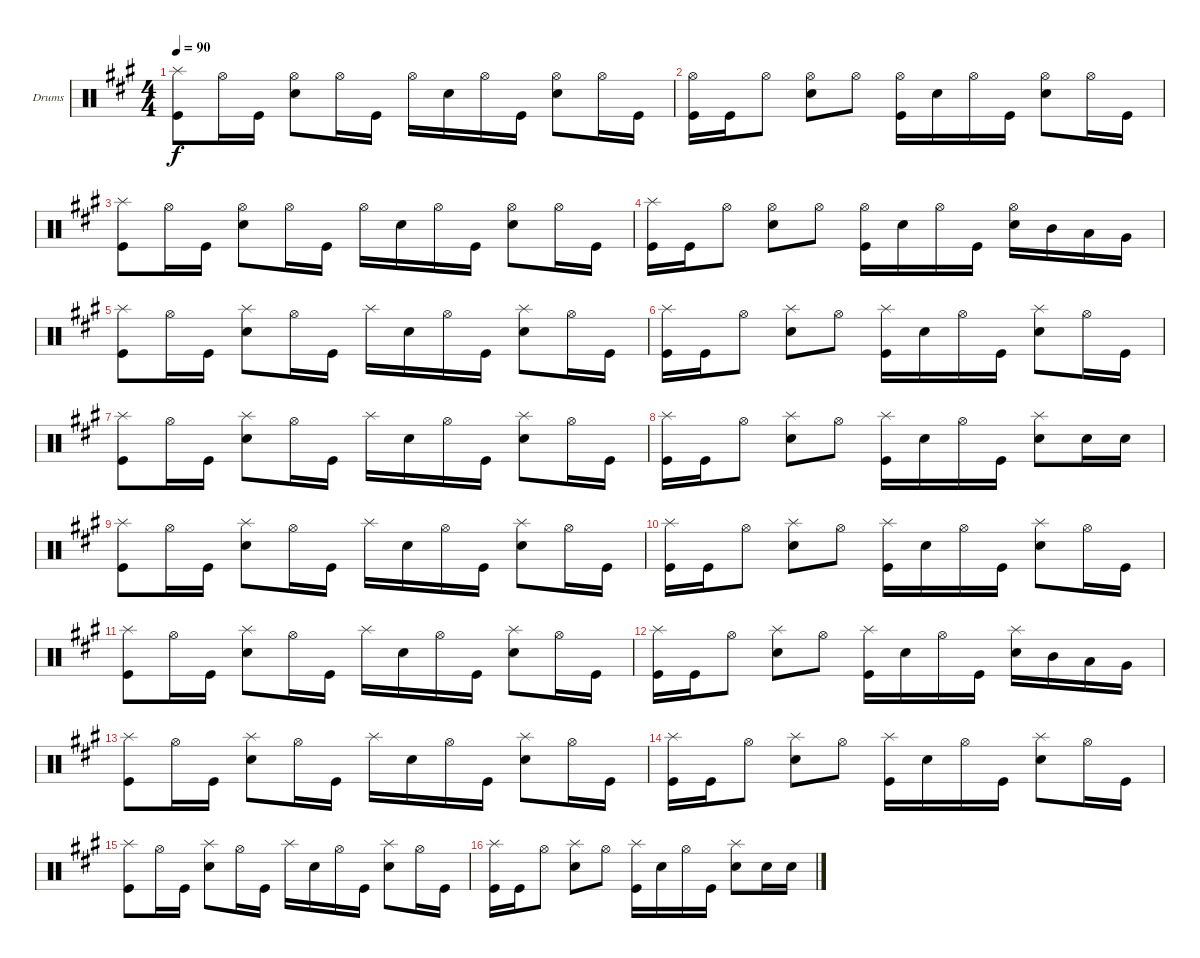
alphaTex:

\bracketExtendMode groupsimilarinstruments
\firstSystemTrackNameOrientation horizontal
\otherSystemsTrackNameOrientation horizontal
\track ("Drumkit" "Drums") {instrument percussion}
\staff {score}
\articulation defaults
\ts (4 4)
\tempo 90
\clef neutral
\ks f#minor
("Kick (hit)" "Splash (hit)").8{dy f} "Hi-Hat (open)".16 "Kick (hit)".16 ("Snare (hit) 2" "Hi-Hat (open)").8 "Hi-Hat (open)".16 "Kick (hit)".16 "Hi-Hat (open)".16 "Snare (hit) 2".16 "Hi-Hat (open)".16 "Kick (hit)".16 ("Snare (hit) 2" "Hi-Hat (open)").8 "Hi-Hat (open)".16 "Kick (hit)".16 |
("Hi-Hat (open)" "Kick (hit)").16 "Kick (hit)".16 "Hi-Hat (open)".8 ("Snare (hit) 2" "Hi-Hat (open)").8 "Hi-Hat (open)".8 ("Kick (hit)" "Hi-Hat (open)").16 "Snare (hit) 2".16 "Hi-Hat (open)".16 "Kick (hit)".16 ("Snare (hit) 2" "Hi-Hat (open)").8 "Hi-Hat (open)".16 "Kick (hit)".16 |
("Kick (hit)" "Splash (hit)").8 "Hi-Hat (open)".16 "Kick (hit)".16 ("Snare (hit) 2" "Hi-Hat (open)").8 "Hi-Hat (open)".16 "Kick (hit)".16 "Hi-Hat (open)".16 "Snare (hit) 2".16 "Hi-Hat (open)".16 "Kick (hit)".16 ("Snare (hit) 2" "Hi-Hat (open)").8 "Hi-Hat (open)".16 "Kick (hit)".16 |
("Kick (hit)" "Splash (hit)").16 "Kick (hit)".16 "Hi-Hat (open)".8 ("Snare (hit) 2" "Hi-Hat (open)").8 "Hi-Hat (open)".8 ("Kick (hit)" "Hi-Hat (open)").16 "Snare (hit) 2".16 "Hi-Hat (open)".16 "Kick (hit)".16 ("Snare (hit) 2" "Hi-Hat (open)").16 "Mid Tom (hit)".16 "Low Tom (hit)".16 "Very Low Tom (hit)".16 |
("Kick (hit)" "Splash (hit)").8 "Hi-Hat (open)".16 "Kick (hit)".16 ("Snare (hit) 2" "Splash (hit)").8 "Hi-Hat (open)".16 "Kick (hit)".16 "Splash (hit)".16 "Snare (hit) 2".16 "Hi-Hat (open)".16 "Kick (hit)".16 ("Snare (hit) 2" "Splash (hit)").8 "Hi-Hat (open)".16 "Kick (hit)".16 |
("Kick (hit)" "Splash (hit)").16 "Kick (hit)".16 "Hi-Hat (open)".8 ("Snare (hit) 2" "Splash (hit)").8 "Hi-Hat (open)".8 ("Kick (hit)" "Splash (hit)").16 "Snare (hit) 2".16 "Hi-Hat (open)".16 "Kick (hit)".16 ("Snare (hit) 2" "Splash (hit)").8 "Hi-Hat (open)".16 "Kick (hit)".16 |
("Kick (hit)" "Splash (hit)").8 "Hi-Hat (open)".16 "Kick (hit)".16 ("Snare (hit) 2" "Splash (hit)").8 "Hi-Hat (open)".16 "Kick (hit)".16 "Splash (hit)".16 "Snare (hit) 2".16 "Hi-Hat (open)".16 "Kick (hit)".16 ("Snare (hit) 2" "Splash (hit)").8 "Hi-Hat (open)".16 "Kick (hit)".16 |
("Kick (hit)" "Splash (hit)").16 "Kick (hit)".16 "Hi-Hat (open)".8 ("Snare (hit) 2" "Splash (hit)").8 "Hi-Hat (open)".8 ("Kick (hit)" "Splash (hit)").16 "Snare (hit) 2".16 "Hi-Hat (open)".16 "Kick (hit)".16 ("Snare (hit) 2" "Splash (hit)").8 "Snare (hit) 2".16 "Snare (hit) 2".16 |
("Kick (hit)" "Splash (hit)").8 "Hi-Hat (open)".16 "Kick (hit)".16 ("Snare (hit) 2" "Splash (hit)").8 "Hi-Hat (open)".16 "Kick (hit)".16 "Splash (hit)".16 "Snare (hit) 2".16 "Hi-Hat (open)".16 "Kick (hit)".16 ("Snare (hit) 2" "Splash (hit)").8 "Hi-Hat (open)".16 "Kick (hit)".16 |
("Kick (hit)" "Splash (hit)").16 "Kick (hit)".16 "Hi-Hat (open)".8 ("Snare (hit) 2" "Splash (hit)").8 "Hi-Hat (open)".8 ("Kick (hit)" "Splash (hit)").16 "Snare (hit) 2".16 "Hi-Hat (open)".16 "Kick (hit)".16 ("Snare (hit) 2" "Splash (hit)").8 "Hi-Hat (open)".16 "Kick (hit)".16 |
("Kick (hit)" "Splash (hit)").8 "Hi-Hat (open)".16 "Kick (hit)".16 ("Snare (hit) 2" "Splash (hit)").8 "Hi-Hat (open)".16 "Kick (hit)".16 "Splash (hit)".16 "Snare (hit) 2".16 "Hi-Hat (open)".16 "Kick (hit)".16 ("Snare (hit) 2" "Splash (hit)").8 "Hi-Hat (open)".16 "Kick (hit)".16 |
("Kick (hit)" "Splash (hit)").16 "Kick (hit)".16 "Hi-Hat (open)".8 ("Snare (hit) 2" "Splash (hit)").8 "Hi-Hat (open)".8 ("Kick (hit)" "Splash (hit)").16 "Snare (hit) 2".16 "Hi-Hat (open)".16 "Kick (hit)".16 ("Snare (hit) 2" "Splash (hit)").16 "Mid Tom (hit)".16 "Low Tom (hit)".16 "Very Low Tom (hit)".16 |
("Kick (hit)" "Splash (hit)").8 "Hi-Hat (open)".16 "Kick (hit)".16 ("Snare (hit) 2" "Splash (hit)").8 "Hi-Hat (open)".16 "Kick (hit)".16 "Splash (hit)".16 "Snare (hit) 2".16 "Hi-Hat (open)".16 "Kick (hit)".16 ("Snare (hit) 2" "Splash (hit)").8 "Hi-Hat (open)".16 "Kick (hit)".16 |
("Kick (hit)" "Splash (hit)").16 "Kick (hit)".16 "Hi-Hat (open)".8 ("Snare (hit) 2" "Splash (hit)").8 "Hi-Hat (open)".8 ("Kick (hit)" "Splash (hit)").16 "Snare (hit) 2".16 "Hi-Hat (open)".16 "Kick (hit)".16 ("Snare (hit) 2" "Splash (hit)").8 "Hi-Hat (open)".16 "Kick (hit)".16 |
("Kick (hit)" "Splash (hit)").8 "Hi-Hat (open)".16 "Kick (hit)".16 ("Snare (hit) 2" "Splash (hit)").8 "Hi-Hat (open)".16 "Kick (hit)".16 "Splash (hit)".16 "Snare (hit) 2".16 "Hi-Hat (open)".16 "Kick (hit)".16 ("Snare (hit) 2" "Splash (hit)").8 "Hi-Hat (open)".16 "Kick (hit)".16 |
("Kick (hit)" "Splash (hit)").16 "Kick (hit)".16 "Hi-Hat (open)".8 ("Snare (hit) 2" "Splash (hit)").8 "Hi-Hat (open)".8 ("Kick (hit)" "Splash (hit)").16 "Snare (hit) 2".16 "Hi-Hat (open)".16 "Kick (hit)".16 ("Snare (hit) 2" "Splash (hit)").8 "Snare (hit) 2".16 "Snare (hit) 2".16
